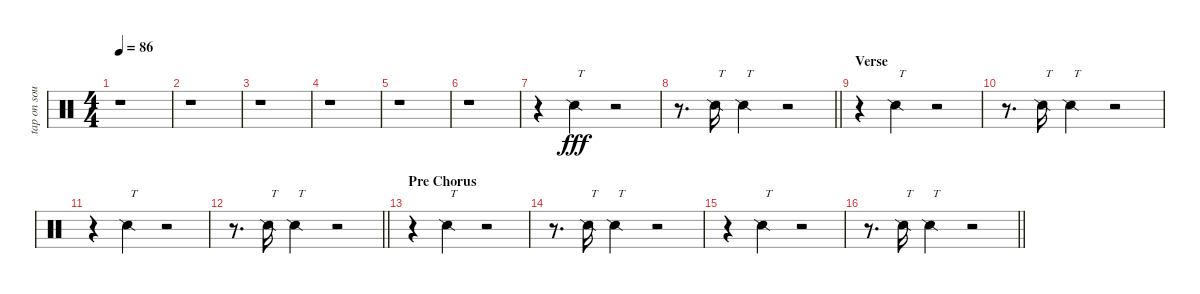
\track ("tap on soundboard" "tap on sou") {instrument percussion}
\staff {score}
\articulation defaults
\ts (4 4)
\tempo 86
\clef neutral
\ks c
r.1{dy fff} |
r.1 |
r.1 |
r.1 |
r.1 |
r.1 |
r.4 "Snare (side stick) 2".4{txt "T"} r.2 |
\barLineRight lightlight
r.8{d} "Snare (side stick) 2".16{txt "T"} "Snare (side stick) 2".4{txt "T"} r.2 |
\section ("" "Verse")
r.4 "Snare (side stick) 2".4{txt "T"} r.2 |
r.8{d} "Snare (side stick) 2".16{txt "T"} "Snare (side stick) 2".4{txt "T"} r.2 |
r.4 "Snare (side stick) 2".4{txt "T"} r.2 |
\barLineRight lightlight
r.8{d} "Snare (side stick) 2".16{txt "T"} "Snare (side stick) 2".4{txt "T"} r.2 |
\section ("" "Pre Chorus")
r.4 "Snare (side stick) 2".4{txt "T"} r.2 |
r.8{d} "Snare (side stick) 2".16{txt "T"} "Snare (side stick) 2".4{txt "T"} r.2 |
r.4 "Snare (side stick) 2".4{txt "T"} r.2 |
\barLineRight lightlight
r.8{d} "Snare (side stick) 2".16{txt "T"} "Snare (side stick) 2".4{txt "T"} r.2
